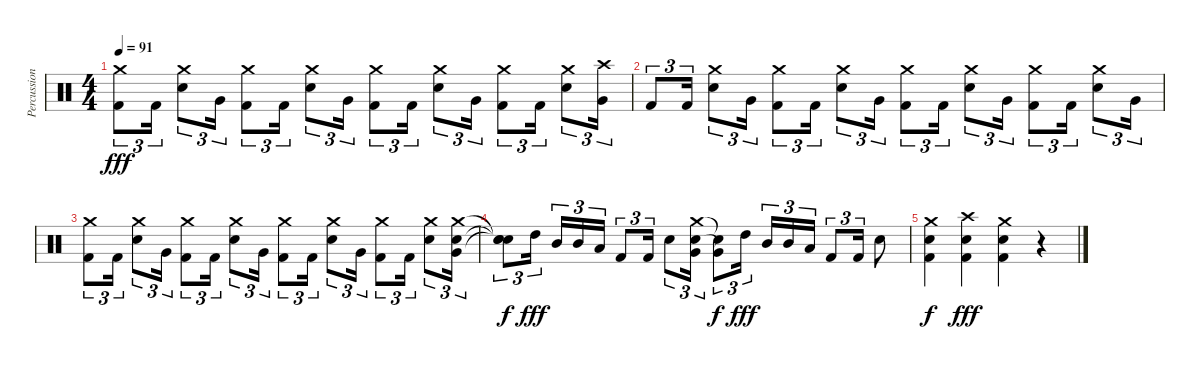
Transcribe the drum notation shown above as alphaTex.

\track ("Percussion" "Percussion") {instrument percussion}
\staff {score}
\articulation defaults
\ts (4 4)
\tempo 91
\clef neutral
\ks c
("Crash medium (hit)" "Kick (hit) 2").8{tu (3 2) dy fff} "Kick (hit) 2".16{tu (3 2)} ("Crash medium (hit)" "Electric Snare (hit)").8{tu (3 2)} "Very Low Tom (hit)".16{tu (3 2)} ("Crash medium (hit)" "Kick (hit) 2").8{tu (3 2)} "Kick (hit) 2".16{tu (3 2)} ("Crash medium (hit)" "Electric Snare (hit)").8{tu (3 2)} "Very Low Tom (hit)".16{tu (3 2)} ("Crash medium (hit)" "Kick (hit) 2").8{tu (3 2)} "Kick (hit) 2".16{tu (3 2)} ("Crash medium (hit)" "Electric Snare (hit)").8{tu (3 2)} "Very Low Tom (hit)".16{tu (3 2)} ("Crash medium (hit)" "Kick (hit) 2").8{tu (3 2)} "Kick (hit) 2".16{tu (3 2)} ("Crash medium (hit)" "Electric Snare (hit)").8{tu (3 2)} ("Crash high (hit)" "Very Low Tom (hit)").16{tu (3 2)} |
"Kick (hit) 2".8{tu (3 2)} "Kick (hit) 2".16{tu (3 2)} ("Crash medium (hit)" "Electric Snare (hit)").8{tu (3 2)} "Very Low Tom (hit)".16{tu (3 2)} ("Crash medium (hit)" "Kick (hit) 2").8{tu (3 2)} "Kick (hit) 2".16{tu (3 2)} ("Crash medium (hit)" "Electric Snare (hit)").8{tu (3 2)} "Very Low Tom (hit)".16{tu (3 2)} ("Crash medium (hit)" "Kick (hit) 2").8{tu (3 2)} "Kick (hit) 2".16{tu (3 2)} ("Crash medium (hit)" "Electric Snare (hit)").8{tu (3 2)} "Very Low Tom (hit)".16{tu (3 2)} ("Crash medium (hit)" "Kick (hit) 2").8{tu (3 2)} "Kick (hit) 2".16{tu (3 2)} ("Crash medium (hit)" "Electric Snare (hit)").8{tu (3 2)} "Very Low Tom (hit)".16{tu (3 2)} |
("Crash medium (hit)" "Kick (hit) 2").8{tu (3 2)} "Kick (hit) 2".16{tu (3 2)} ("Crash medium (hit)" "Electric Snare (hit)").8{tu (3 2)} "Very Low Tom (hit)".16{tu (3 2)} ("Crash medium (hit)" "Kick (hit) 2").8{tu (3 2)} "Kick (hit) 2".16{tu (3 2)} ("Crash medium (hit)" "Electric Snare (hit)").8{tu (3 2)} "Very Low Tom (hit)".16{tu (3 2)} ("Crash medium (hit)" "Kick (hit) 2").8{tu (3 2)} "Kick (hit) 2".16{tu (3 2)} ("Crash medium (hit)" "Electric Snare (hit)").8{tu (3 2)} "Very Low Tom (hit)".16{tu (3 2)} ("Crash medium (hit)" "Kick (hit) 2").8{tu (3 2)} "Kick (hit) 2".16{tu (3 2)} ("Crash medium (hit)" "Electric Snare (hit)").8{tu (3 2)} ("Crash medium (hit)" "Electric Snare (hit)" "Very Low Tom (hit)").16{tu (3 2)} |
("Snare (hit)"{t} "Snare (hit)"{t} "Snare (hit)"{t}).8{tu (3 2) dy f} "High Tom (hit)".16{tu (3 2) dy fff beam splitsecondary} "Mid Tom (hit)".16{tu (3 2)} "Mid Tom (hit)".16{tu (3 2)} "Low Tom (hit)".16{tu (3 2)} "Kick (hit) 2".8{tu (3 2)} "Kick (hit) 2".16{tu (3 2)} "Electric Snare (hit)".8{tu (3 2)} ("Crash medium (hit)" "Electric Snare (hit)" "Very Low Tom (hit)").16{tu (3 2)} ("Electric Snare (hit)"{t} "Very Low Tom (hit)"{t}).8{tu (3 2) dy f} "High Tom (hit)".16{tu (3 2) dy fff beam splitsecondary} "Mid Tom (hit)".16{tu (3 2)} "Mid Tom (hit)".16{tu (3 2)} "Low Tom (hit)".16{tu (3 2)} "Kick (hit) 2".8{tu (3 2)} "Kick (hit) 2".16{tu (3 2)} "Electric Snare (hit)".8 |
("Crash medium (hit)" "Electric Snare (hit)" "Kick (hit) 2").4{dy f} ("Crash high (hit)" "Electric Snare (hit)" "Kick (hit) 2").4{dy fff} ("Crash medium (hit)" "Electric Snare (hit)" "Kick (hit) 2").4 r.4
